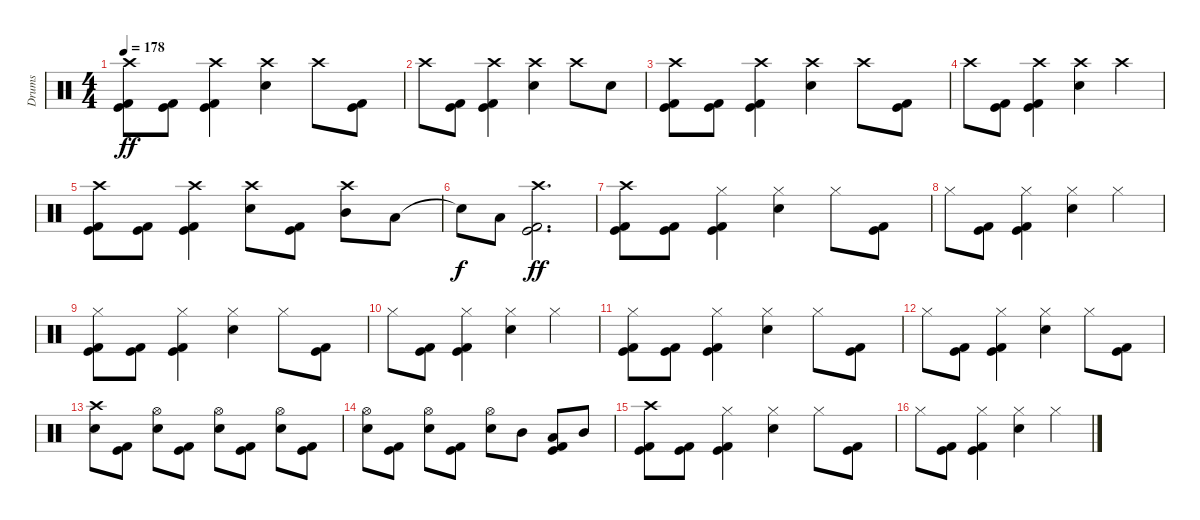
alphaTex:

\track ("Drums" "Drums") {instrument percussion}
\staff {score}
\articulation defaults
\ts (4 4)
\tempo 178
\clef neutral
\ks c
("Kick (hit)" "Kick (hit) 2" "Crash high (hit)").8{dy ff} ("Kick (hit)" "Kick (hit) 2").8 ("Kick (hit)" "Kick (hit) 2" "Crash high (hit)").4 ("Electric Snare (hit)" "Crash high (hit)").4 "Crash high (hit)".8 ("Kick (hit)" "Kick (hit) 2").8 |
"Crash high (hit)".8 ("Kick (hit)" "Kick (hit) 2").8 ("Kick (hit)" "Kick (hit) 2" "Crash high (hit)").4 ("Electric Snare (hit)" "Crash high (hit)").4 "Crash high (hit)".8 "Electric Snare (hit)".8 |
("Kick (hit)" "Kick (hit) 2" "Crash high (hit)").8 ("Kick (hit)" "Kick (hit) 2").8 ("Kick (hit)" "Kick (hit) 2" "Crash high (hit)").4 ("Electric Snare (hit)" "Crash high (hit)").4 "Crash high (hit)".8 ("Kick (hit)" "Kick (hit) 2").8 |
"Crash high (hit)".8 ("Kick (hit)" "Kick (hit) 2").8 ("Kick (hit)" "Kick (hit) 2" "Crash high (hit)").4 ("Electric Snare (hit)" "Crash high (hit)").4 "Crash high (hit)".4 |
("Kick (hit)" "Kick (hit) 2" "Crash high (hit)").8 ("Kick (hit)" "Kick (hit) 2").8 ("Kick (hit)" "Kick (hit) 2" "Crash high (hit)").4 ("Electric Snare (hit)" "Crash high (hit)").8 ("Kick (hit)" "Kick (hit) 2").8 ("Mid Tom (hit)" "Crash high (hit)").8 "Low Tom (hit)".8 |
"Snare (hit)"{t}.8{dy f} "Low Tom (hit)".8 ("Kick (hit)" "Kick (hit) 2" "Crash high (hit)").2{d dy ff} |
("Kick (hit)" "Kick (hit) 2" "Crash high (hit)").8 ("Kick (hit)" "Kick (hit) 2").8 ("Kick (hit)" "Kick (hit) 2" "Hi-Hat (closed)").4 ("Electric Snare (hit)" "Hi-Hat (closed)").4 "Hi-Hat (closed)".8 ("Kick (hit)" "Kick (hit) 2").8 |
"Hi-Hat (closed)".8 ("Kick (hit)" "Kick (hit) 2").8 ("Kick (hit)" "Kick (hit) 2" "Hi-Hat (closed)").4 ("Electric Snare (hit)" "Hi-Hat (closed)").4 "Hi-Hat (closed)".4 |
("Kick (hit)" "Kick (hit) 2" "Hi-Hat (closed)").8 ("Kick (hit)" "Kick (hit) 2").8 ("Kick (hit)" "Kick (hit) 2" "Hi-Hat (closed)").4 ("Electric Snare (hit)" "Hi-Hat (closed)").4 "Hi-Hat (closed)".8 ("Kick (hit)" "Kick (hit) 2").8 |
"Hi-Hat (closed)".8 ("Kick (hit)" "Kick (hit) 2").8 ("Kick (hit)" "Kick (hit) 2" "Hi-Hat (closed)").4 ("Electric Snare (hit)" "Hi-Hat (closed)").4 "Hi-Hat (closed)".4 |
("Kick (hit)" "Kick (hit) 2" "Hi-Hat (closed)").8 ("Kick (hit)" "Kick (hit) 2").8 ("Kick (hit)" "Kick (hit) 2" "Hi-Hat (closed)").4 ("Electric Snare (hit)" "Hi-Hat (closed)").4 "Hi-Hat (closed)".8 ("Kick (hit)" "Kick (hit) 2").8 |
"Hi-Hat (closed)".8 ("Kick (hit)" "Kick (hit) 2").8 ("Kick (hit)" "Kick (hit) 2" "Hi-Hat (closed)").4 ("Electric Snare (hit)" "Hi-Hat (closed)").4 "Hi-Hat (closed)".8 ("Kick (hit)" "Kick (hit) 2").8 |
("Electric Snare (hit)" "Crash high (hit)").8 ("Kick (hit)" "Kick (hit) 2").8 ("Electric Snare (hit)" "Hi-Hat (open)").8 ("Kick (hit)" "Kick (hit) 2").8 ("Electric Snare (hit)" "Hi-Hat (open)").8 ("Kick (hit)" "Kick (hit) 2").8 ("Electric Snare (hit)" "Hi-Hat (open)").8 ("Kick (hit)" "Kick (hit) 2").8 |
("Electric Snare (hit)" "Hi-Hat (open)").8 ("Kick (hit)" "Kick (hit) 2").8 ("Electric Snare (hit)" "Hi-Hat (open)").8 ("Kick (hit)" "Kick (hit) 2").8 ("Electric Snare (hit)" "Hi-Hat (open)").8 "Mid Tom (hit)".8 ("Kick (hit)" "Kick (hit) 2" "Low Tom (hit)").8 "Mid Tom (hit)".8 |
("Kick (hit)" "Kick (hit) 2" "Crash high (hit)").8 ("Kick (hit)" "Kick (hit) 2").8 ("Kick (hit)" "Kick (hit) 2" "Hi-Hat (closed)").4 ("Electric Snare (hit)" "Hi-Hat (closed)").4 "Hi-Hat (closed)".8 ("Kick (hit)" "Kick (hit) 2").8 |
"Hi-Hat (closed)".8 ("Kick (hit)" "Kick (hit) 2").8 ("Kick (hit)" "Kick (hit) 2" "Hi-Hat (closed)").4 ("Electric Snare (hit)" "Hi-Hat (closed)").4 "Hi-Hat (closed)".4
